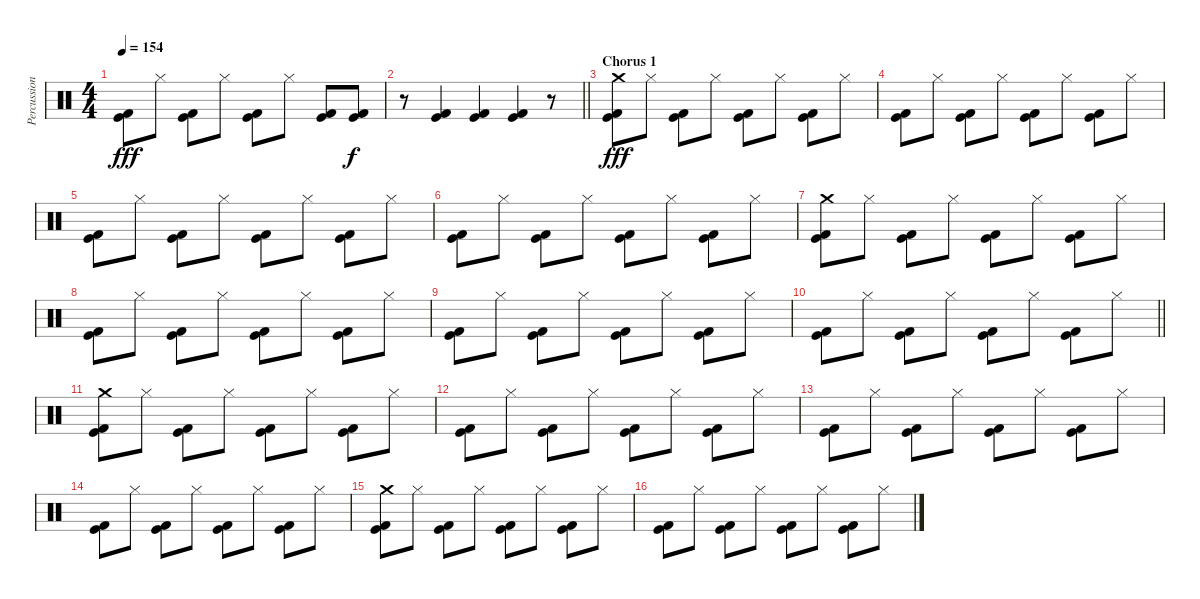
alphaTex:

\track ("Percussion" "Percussion") {instrument percussion}
\staff {score}
\articulation defaults
\ts (4 4)
\tempo 154
\clef neutral
\ks c
("Kick (hit)" "Kick (hit) 2").8{dy fff} "Hi-Hat (closed)".8 ("Kick (hit)" "Kick (hit) 2").8 "Hi-Hat (closed)".8 ("Kick (hit)" "Kick (hit) 2").8 "Hi-Hat (closed)".8 ("Kick (hit)" "Kick (hit) 2").8 ("Kick (hit)" "Kick (hit) 2").8{dy f} |
\barLineRight lightlight
r.8 ("Kick (hit)" "Kick (hit) 2").4 ("Kick (hit)" "Kick (hit) 2").4 ("Kick (hit)" "Kick (hit) 2").4 r.8 |
\section ("" "Chorus 1")
("Crash medium (hit)" "Kick (hit)" "Kick (hit) 2").8{dy fff} "Hi-Hat (closed)".8 ("Kick (hit)" "Kick (hit) 2").8 "Hi-Hat (closed)".8 ("Kick (hit)" "Kick (hit) 2").8 "Hi-Hat (closed)".8 ("Kick (hit)" "Kick (hit) 2").8 "Hi-Hat (closed)".8 |
("Kick (hit)" "Kick (hit) 2").8 "Hi-Hat (closed)".8 ("Kick (hit)" "Kick (hit) 2").8 "Hi-Hat (closed)".8 ("Kick (hit)" "Kick (hit) 2").8 "Hi-Hat (closed)".8 ("Kick (hit)" "Kick (hit) 2").8 "Hi-Hat (closed)".8 |
("Kick (hit)" "Kick (hit) 2").8 "Hi-Hat (closed)".8 ("Kick (hit)" "Kick (hit) 2").8 "Hi-Hat (closed)".8 ("Kick (hit)" "Kick (hit) 2").8 "Hi-Hat (closed)".8 ("Kick (hit)" "Kick (hit) 2").8 "Hi-Hat (closed)".8 |
("Kick (hit)" "Kick (hit) 2").8 "Hi-Hat (closed)".8 ("Kick (hit)" "Kick (hit) 2").8 "Hi-Hat (closed)".8 ("Kick (hit)" "Kick (hit) 2").8 "Hi-Hat (closed)".8 ("Kick (hit)" "Kick (hit) 2").8 "Hi-Hat (closed)".8 |
("Crash medium (hit)" "Kick (hit)" "Kick (hit) 2").8 "Hi-Hat (closed)".8 ("Kick (hit)" "Kick (hit) 2").8 "Hi-Hat (closed)".8 ("Kick (hit)" "Kick (hit) 2").8 "Hi-Hat (closed)".8 ("Kick (hit)" "Kick (hit) 2").8 "Hi-Hat (closed)".8 |
("Kick (hit)" "Kick (hit) 2").8 "Hi-Hat (closed)".8 ("Kick (hit)" "Kick (hit) 2").8 "Hi-Hat (closed)".8 ("Kick (hit)" "Kick (hit) 2").8 "Hi-Hat (closed)".8 ("Kick (hit)" "Kick (hit) 2").8 "Hi-Hat (closed)".8 |
("Kick (hit)" "Kick (hit) 2").8 "Hi-Hat (closed)".8 ("Kick (hit)" "Kick (hit) 2").8 "Hi-Hat (closed)".8 ("Kick (hit)" "Kick (hit) 2").8 "Hi-Hat (closed)".8 ("Kick (hit)" "Kick (hit) 2").8 "Hi-Hat (closed)".8 |
\barLineRight lightlight
("Kick (hit)" "Kick (hit) 2").8 "Hi-Hat (closed)".8 ("Kick (hit)" "Kick (hit) 2").8 "Hi-Hat (closed)".8 ("Kick (hit)" "Kick (hit) 2").8 "Hi-Hat (closed)".8 ("Kick (hit)" "Kick (hit) 2").8 "Hi-Hat (closed)".8 |
("Crash medium (hit)" "Kick (hit)" "Kick (hit) 2").8 "Hi-Hat (closed)".8 ("Kick (hit)" "Kick (hit) 2").8 "Hi-Hat (closed)".8 ("Kick (hit)" "Kick (hit) 2").8 "Hi-Hat (closed)".8 ("Kick (hit)" "Kick (hit) 2").8 "Hi-Hat (closed)".8 |
("Kick (hit)" "Kick (hit) 2").8 "Hi-Hat (closed)".8 ("Kick (hit)" "Kick (hit) 2").8 "Hi-Hat (closed)".8 ("Kick (hit)" "Kick (hit) 2").8 "Hi-Hat (closed)".8 ("Kick (hit)" "Kick (hit) 2").8 "Hi-Hat (closed)".8 |
("Kick (hit)" "Kick (hit) 2").8 "Hi-Hat (closed)".8 ("Kick (hit)" "Kick (hit) 2").8 "Hi-Hat (closed)".8 ("Kick (hit)" "Kick (hit) 2").8 "Hi-Hat (closed)".8 ("Kick (hit)" "Kick (hit) 2").8 "Hi-Hat (closed)".8 |
("Kick (hit)" "Kick (hit) 2").8 "Hi-Hat (closed)".8 ("Kick (hit)" "Kick (hit) 2").8 "Hi-Hat (closed)".8 ("Kick (hit)" "Kick (hit) 2").8 "Hi-Hat (closed)".8 ("Kick (hit)" "Kick (hit) 2").8 "Hi-Hat (closed)".8 |
("Crash medium (hit)" "Kick (hit)" "Kick (hit) 2").8 "Hi-Hat (closed)".8 ("Kick (hit)" "Kick (hit) 2").8 "Hi-Hat (closed)".8 ("Kick (hit)" "Kick (hit) 2").8 "Hi-Hat (closed)".8 ("Kick (hit)" "Kick (hit) 2").8 "Hi-Hat (closed)".8 |
("Kick (hit)" "Kick (hit) 2").8 "Hi-Hat (closed)".8 ("Kick (hit)" "Kick (hit) 2").8 "Hi-Hat (closed)".8 ("Kick (hit)" "Kick (hit) 2").8 "Hi-Hat (closed)".8 ("Kick (hit)" "Kick (hit) 2").8 "Hi-Hat (closed)".8
